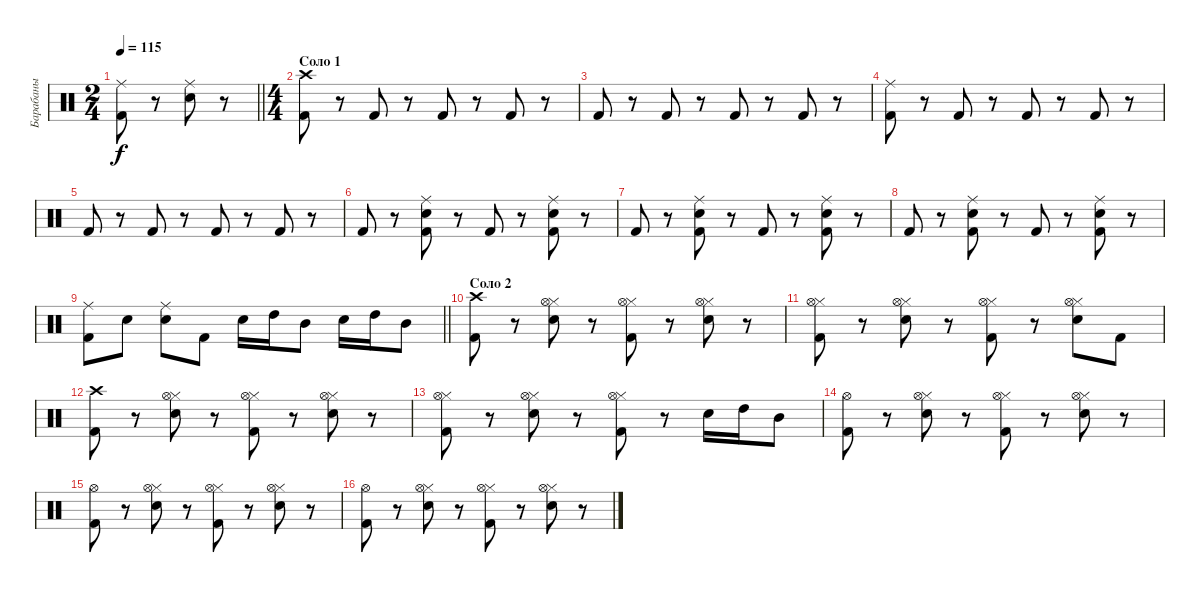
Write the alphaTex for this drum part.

\track ("Барабаны" "Барабаны") {instrument percussion}
\staff {score}
\articulation defaults
\ts (2 4)
\tempo 115
\clef neutral
\barLineRight lightlight
\ks c
("Ride (middle)" "Kick (hit) 2").8{dy f} r.8 ("Snare (hit) 2" "Ride (middle)").8 r.8 |
\ts (4 4)
\section ("" "Соло 1")
("Kick (hit) 2" "Crash high (hit)").8 r.8 "Kick (hit) 2".8 r.8 "Kick (hit) 2".8 r.8 "Kick (hit) 2".8 r.8 |
"Kick (hit) 2".8 r.8 "Kick (hit) 2".8 r.8 "Kick (hit) 2".8 r.8 "Kick (hit) 2".8 r.8 |
("Kick (hit) 2" "Ride (middle)").8 r.8 "Kick (hit) 2".8 r.8 "Kick (hit) 2".8 r.8 "Kick (hit) 2".8 r.8 |
"Kick (hit) 2".8 r.8 "Kick (hit) 2".8 r.8 "Kick (hit) 2".8 r.8 "Kick (hit) 2".8 r.8 |
"Kick (hit) 2".8 r.8 ("Kick (hit) 2" "Snare (hit) 2" "Ride (middle)").8 r.8 "Kick (hit) 2".8 r.8 ("Kick (hit) 2" "Snare (hit) 2" "Ride (middle)").8 r.8 |
"Kick (hit) 2".8 r.8 ("Kick (hit) 2" "Snare (hit) 2" "Ride (middle)").8 r.8 "Kick (hit) 2".8 r.8 ("Kick (hit) 2" "Snare (hit) 2" "Ride (middle)").8 r.8 |
"Kick (hit) 2".8 r.8 ("Kick (hit) 2" "Snare (hit) 2" "Ride (middle)").8 r.8 "Kick (hit) 2".8 r.8 ("Kick (hit) 2" "Snare (hit) 2" "Ride (middle)").8 r.8 |
\barLineRight lightlight
("Kick (hit) 2" "Ride (middle)").8 "Snare (hit) 2".8 ("Snare (hit) 2" "Ride (middle)").8 "Kick (hit) 2".8 "Electric Snare (hit)".16 "High Tom (hit)".16 "Mid Tom (hit)".8 "Electric Snare (hit)".16 "High Tom (hit)".16 "Mid Tom (hit)".8 |
\section ("" "Соло 2")
("Kick (hit) 2" "Crash high (hit)").8 r.8 ("Snare (hit) 2" "Hi-Hat (closed)" "Hi-Hat (open)").8 r.8 ("Kick (hit) 2" "Hi-Hat (closed)" "Hi-Hat (open)").8 r.8 ("Snare (hit) 2" "Hi-Hat (closed)" "Hi-Hat (open)").8 r.8 |
("Kick (hit) 2" "Hi-Hat (closed)" "Hi-Hat (open)").8 r.8 ("Snare (hit) 2" "Hi-Hat (closed)" "Hi-Hat (open)").8 r.8 ("Kick (hit) 2" "Hi-Hat (closed)" "Hi-Hat (open)").8 r.8 ("Snare (hit) 2" "Hi-Hat (closed)" "Hi-Hat (open)").8 "Kick (hit) 2".8 |
("Kick (hit) 2" "Crash high (hit)").8 r.8 ("Snare (hit) 2" "Hi-Hat (closed)" "Hi-Hat (open)").8 r.8 ("Kick (hit) 2" "Hi-Hat (closed)" "Hi-Hat (open)").8 r.8 ("Snare (hit) 2" "Hi-Hat (closed)" "Hi-Hat (open)").8 r.8 |
("Kick (hit) 2" "Hi-Hat (closed)" "Hi-Hat (open)").8 r.8 ("Snare (hit) 2" "Hi-Hat (closed)" "Hi-Hat (open)").8 r.8 ("Kick (hit) 2" "Hi-Hat (closed)" "Hi-Hat (open)").8 r.8 "Electric Snare (hit)".16 "High Tom (hit)".16 "Mid Tom (hit)".8 |
("Kick (hit) 2" "Hi-Hat (open)").8 r.8 ("Snare (hit) 2" "Hi-Hat (closed)" "Hi-Hat (open)").8 r.8 ("Kick (hit) 2" "Hi-Hat (closed)" "Hi-Hat (open)").8 r.8 ("Snare (hit) 2" "Hi-Hat (closed)" "Hi-Hat (open)").8 r.8 |
("Kick (hit) 2" "Hi-Hat (open)").8 r.8 ("Snare (hit) 2" "Hi-Hat (closed)" "Hi-Hat (open)").8 r.8 ("Kick (hit) 2" "Hi-Hat (closed)" "Hi-Hat (open)").8 r.8 ("Snare (hit) 2" "Hi-Hat (closed)" "Hi-Hat (open)").8 r.8 |
("Kick (hit) 2" "Hi-Hat (open)").8 r.8 ("Snare (hit) 2" "Hi-Hat (closed)" "Hi-Hat (open)").8 r.8 ("Kick (hit) 2" "Hi-Hat (closed)" "Hi-Hat (open)").8 r.8 ("Snare (hit) 2" "Hi-Hat (closed)" "Hi-Hat (open)").8 r.8
